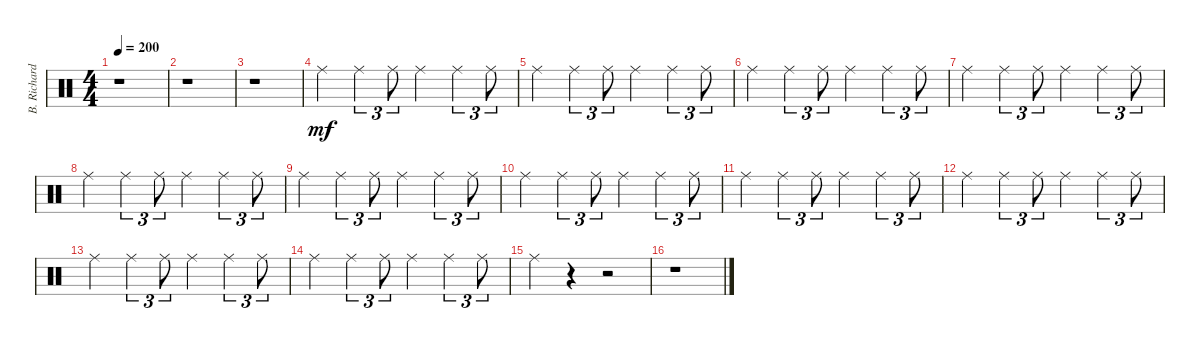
\track ("B. Richardson Drums" "B. Richard") {instrument percussion}
\staff {score}
\articulation defaults
\ts (4 4)
\tempo 200
\clef neutral
\ks c
r.1{dy mp} |
r.1 |
r.1 |
"Ride (middle)".4{dy mf} "Ride (middle)".4{tu (3 2)} "Ride (middle)".8{tu (3 2)} "Ride (middle)".4 "Ride (middle)".4{tu (3 2)} "Ride (middle)".8{tu (3 2)} |
"Ride (middle)".4 "Ride (middle)".4{tu (3 2)} "Ride (middle)".8{tu (3 2)} "Ride (middle)".4 "Ride (middle)".4{tu (3 2)} "Ride (middle)".8{tu (3 2)} |
"Ride (middle)".4 "Ride (middle)".4{tu (3 2)} "Ride (middle)".8{tu (3 2)} "Ride (middle)".4 "Ride (middle)".4{tu (3 2)} "Ride (middle)".8{tu (3 2)} |
"Ride (middle)".4 "Ride (middle)".4{tu (3 2)} "Ride (middle)".8{tu (3 2)} "Ride (middle)".4 "Ride (middle)".4{tu (3 2)} "Ride (middle)".8{tu (3 2)} |
"Ride (middle)".4 "Ride (middle)".4{tu (3 2)} "Ride (middle)".8{tu (3 2)} "Ride (middle)".4 "Ride (middle)".4{tu (3 2)} "Ride (middle)".8{tu (3 2)} |
"Ride (middle)".4 "Ride (middle)".4{tu (3 2)} "Ride (middle)".8{tu (3 2)} "Ride (middle)".4 "Ride (middle)".4{tu (3 2)} "Ride (middle)".8{tu (3 2)} |
"Ride (middle)".4 "Ride (middle)".4{tu (3 2)} "Ride (middle)".8{tu (3 2)} "Ride (middle)".4 "Ride (middle)".4{tu (3 2)} "Ride (middle)".8{tu (3 2)} |
"Ride (middle)".4 "Ride (middle)".4{tu (3 2)} "Ride (middle)".8{tu (3 2)} "Ride (middle)".4 "Ride (middle)".4{tu (3 2)} "Ride (middle)".8{tu (3 2)} |
"Ride (middle)".4 "Ride (middle)".4{tu (3 2)} "Ride (middle)".8{tu (3 2)} "Ride (middle)".4 "Ride (middle)".4{tu (3 2)} "Ride (middle)".8{tu (3 2)} |
"Ride (middle)".4 "Ride (middle)".4{tu (3 2)} "Ride (middle)".8{tu (3 2)} "Ride (middle)".4 "Ride (middle)".4{tu (3 2)} "Ride (middle)".8{tu (3 2)} |
"Ride (middle)".4 "Ride (middle)".4{tu (3 2)} "Ride (middle)".8{tu (3 2)} "Ride (middle)".4 "Ride (middle)".4{tu (3 2)} "Ride (middle)".8{tu (3 2)} |
"Ride (middle)".4 r.4 r.2 |
r.1
